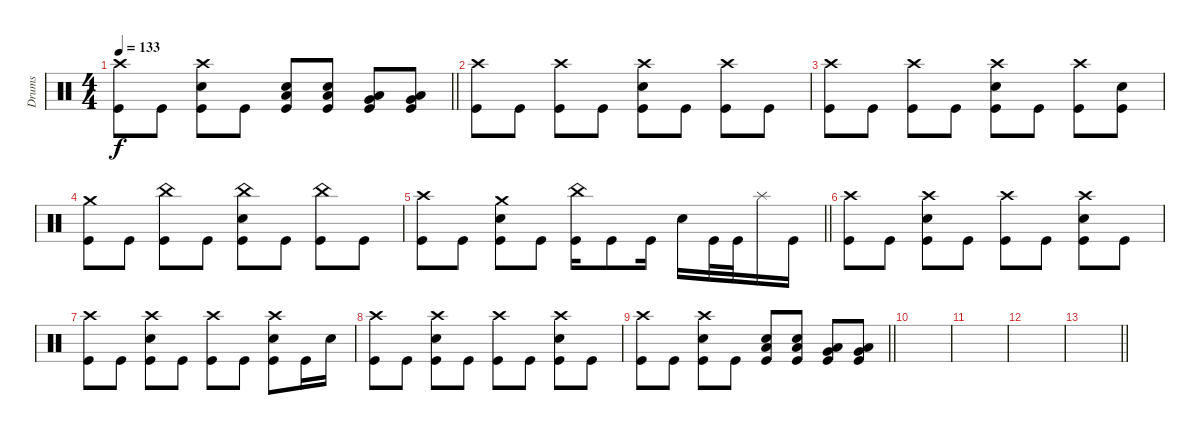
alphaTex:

\track ("Drums" "Drums") {instrument percussion}
\staff
\articulation defaults
\ts (4 4)
\tempo 133
\clef neutral
\barLineRight lightlight
\ks c
("Crash high (hit)" "Kick (hit)").8{dy f} "Kick (hit)".8 ("Crash high (hit)" "Electric Snare (hit)" "Kick (hit)").8 "Kick (hit)".8 ("Low Floor Tom (hit)" "Electric Snare (hit)" "Kick (hit)").8 ("Low Floor Tom (hit)" "Electric Snare (hit)" "Kick (hit)").8 ("Very Low Tom (hit)" "Low Floor Tom (hit)" "Kick (hit)").8 ("Very Low Tom (hit)" "Low Floor Tom (hit)" "Kick (hit)").8 |
("Crash high (hit)" "Kick (hit)").8 "Kick (hit)".8 ("Crash high (hit)" "Kick (hit)").8 "Kick (hit)".8 ("Crash high (hit)" "Electric Snare (hit)" "Kick (hit)").8 "Kick (hit)".8 ("Crash high (hit)" "Kick (hit)").8 "Kick (hit)".8 |
("Crash high (hit)" "Kick (hit)").8 "Kick (hit)".8 ("Crash high (hit)" "Kick (hit)").8 "Kick (hit)".8 ("Crash high (hit)" "Electric Snare (hit)" "Kick (hit)").8 "Kick (hit)".8 ("Crash high (hit)" "Kick (hit)").8 ("Electric Snare (hit)" "Kick (hit)").8 |
("Crash medium (hit)" "Kick (hit)").8 "Kick (hit)".8 ("China (hit)" "Kick (hit)").8 "Kick (hit)".8 ("China (hit)" "Electric Snare (hit)" "Kick (hit)").8 "Kick (hit)".8 ("China (hit)" "Kick (hit)").8 "Kick (hit)".8 |
\barLineRight lightlight
("Crash high (hit)" "Kick (hit)").8 "Kick (hit)".8 ("Crash medium (hit)" "Electric Snare (hit)" "Kick (hit)").8 "Kick (hit)".8 ("China (hit)" "Kick (hit)").16 "Kick (hit)".8 "Kick (hit)".16 "Electric Snare (hit)".16 "Kick (hit)".32 "Kick (hit)".32 "Splash (hit)".16 "Kick (hit)".16 |
("Crash high (hit)" "Kick (hit)").8 "Kick (hit)".8 ("Crash high (hit)" "Electric Snare (hit)" "Kick (hit)").8 "Kick (hit)".8 ("Crash high (hit)" "Kick (hit)").8 "Kick (hit)".8 ("Crash high (hit)" "Electric Snare (hit)" "Kick (hit)").8 "Kick (hit)".8 |
("Crash high (hit)" "Kick (hit)").8 "Kick (hit)".8 ("Crash high (hit)" "Electric Snare (hit)" "Kick (hit)").8 "Kick (hit)".8 ("Crash high (hit)" "Kick (hit)").8 "Kick (hit)".8 ("Crash high (hit)" "Electric Snare (hit)" "Kick (hit)").8 "Kick (hit)".16 "Electric Snare (hit)".16 |
("Crash high (hit)" "Kick (hit)").8 "Kick (hit)".8 ("Crash high (hit)" "Electric Snare (hit)" "Kick (hit)").8 "Kick (hit)".8 ("Crash high (hit)" "Kick (hit)").8 "Kick (hit)".8 ("Crash high (hit)" "Electric Snare (hit)" "Kick (hit)").8 "Kick (hit)".8 |
\barLineRight lightlight
("Crash high (hit)" "Kick (hit)").8 "Kick (hit)".8 ("Crash high (hit)" "Electric Snare (hit)" "Kick (hit)").8 "Kick (hit)".8 ("Low Floor Tom (hit)" "Electric Snare (hit)" "Kick (hit)").8 ("Low Floor Tom (hit)" "Electric Snare (hit)" "Kick (hit)").8 ("Very Low Tom (hit)" "Low Floor Tom (hit)" "Kick (hit)").8 ("Very Low Tom (hit)" "Low Floor Tom (hit)" "Kick (hit)").8 |
\section ("" "")
|
|
|
\barLineRight lightlight
